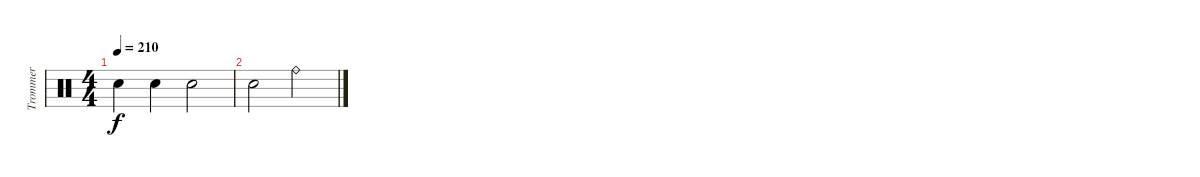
\track ("Trommer" "Trommer") {instrument percussion}
\staff {score}
\articulation defaults
\ts (4 4)
\tempo 210
\clef neutral
\ks c "Snare (hit) 2".4{dy f} "Snare (hit) 2".4 "Snare (hit) 2".2
|
"Snare (hit) 2".2 "Ride (bell)".2
